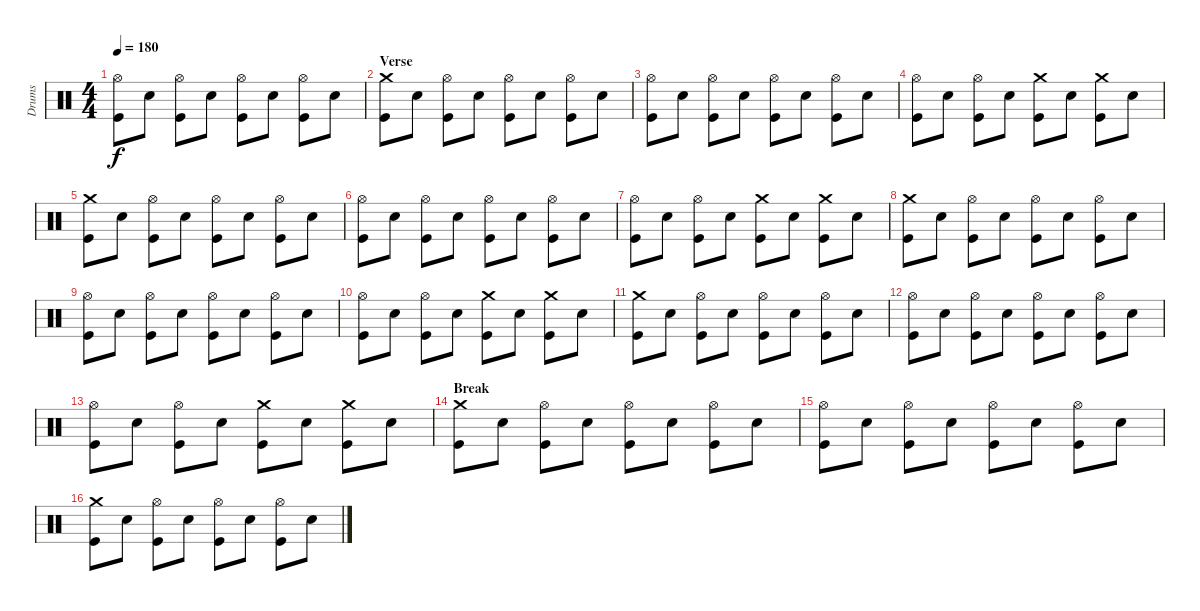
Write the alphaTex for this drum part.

\track ("Drums" "Drums") {instrument percussion}
\staff {score}
\articulation defaults
\ts (4 4)
\tempo 180
\clef neutral
\ks c
("Hi-Hat (open)" "Kick (hit)").8{dy f} "Snare (hit) 2".8 ("Hi-Hat (open)" "Kick (hit)").8 "Snare (hit) 2".8 ("Hi-Hat (open)" "Kick (hit)").8 "Snare (hit) 2".8 ("Hi-Hat (open)" "Kick (hit)").8 "Snare (hit) 2".8 |
\section ("" "Verse")
("Crash medium (hit)" "Kick (hit)").8 "Snare (hit) 2".8 ("Hi-Hat (open)" "Kick (hit)").8 "Snare (hit) 2".8 ("Hi-Hat (open)" "Kick (hit)").8 "Snare (hit) 2".8 ("Hi-Hat (open)" "Kick (hit)").8 "Snare (hit) 2".8 |
("Hi-Hat (open)" "Kick (hit)").8 "Snare (hit) 2".8 ("Hi-Hat (open)" "Kick (hit)").8 "Snare (hit) 2".8 ("Hi-Hat (open)" "Kick (hit)").8 "Snare (hit) 2".8 ("Hi-Hat (open)" "Kick (hit)").8 "Snare (hit) 2".8 |
("Hi-Hat (open)" "Kick (hit)").8 "Snare (hit) 2".8 ("Hi-Hat (open)" "Kick (hit)").8 "Snare (hit) 2".8 ("Crash medium (hit)" "Kick (hit)").8 "Snare (hit) 2".8 ("Crash medium (hit)" "Kick (hit)").8 "Snare (hit) 2".8 |
("Crash medium (hit)" "Kick (hit)").8 "Snare (hit) 2".8 ("Hi-Hat (open)" "Kick (hit)").8 "Snare (hit) 2".8 ("Hi-Hat (open)" "Kick (hit)").8 "Snare (hit) 2".8 ("Hi-Hat (open)" "Kick (hit)").8 "Snare (hit) 2".8 |
("Hi-Hat (open)" "Kick (hit)").8 "Snare (hit) 2".8 ("Hi-Hat (open)" "Kick (hit)").8 "Snare (hit) 2".8 ("Hi-Hat (open)" "Kick (hit)").8 "Snare (hit) 2".8 ("Hi-Hat (open)" "Kick (hit)").8 "Snare (hit) 2".8 |
("Hi-Hat (open)" "Kick (hit)").8 "Snare (hit) 2".8 ("Hi-Hat (open)" "Kick (hit)").8 "Snare (hit) 2".8 ("Crash medium (hit)" "Kick (hit)").8 "Snare (hit) 2".8 ("Crash medium (hit)" "Kick (hit)").8 "Snare (hit) 2".8 |
("Crash medium (hit)" "Kick (hit)").8 "Snare (hit) 2".8 ("Hi-Hat (open)" "Kick (hit)").8 "Snare (hit) 2".8 ("Hi-Hat (open)" "Kick (hit)").8 "Snare (hit) 2".8 ("Hi-Hat (open)" "Kick (hit)").8 "Snare (hit) 2".8 |
("Hi-Hat (open)" "Kick (hit)").8 "Snare (hit) 2".8 ("Hi-Hat (open)" "Kick (hit)").8 "Snare (hit) 2".8 ("Hi-Hat (open)" "Kick (hit)").8 "Snare (hit) 2".8 ("Hi-Hat (open)" "Kick (hit)").8 "Snare (hit) 2".8 |
("Hi-Hat (open)" "Kick (hit)").8 "Snare (hit) 2".8 ("Hi-Hat (open)" "Kick (hit)").8 "Snare (hit) 2".8 ("Crash medium (hit)" "Kick (hit)").8 "Snare (hit) 2".8 ("Crash medium (hit)" "Kick (hit)").8 "Snare (hit) 2".8 |
("Crash medium (hit)" "Kick (hit)").8 "Snare (hit) 2".8 ("Hi-Hat (open)" "Kick (hit)").8 "Snare (hit) 2".8 ("Hi-Hat (open)" "Kick (hit)").8 "Snare (hit) 2".8 ("Hi-Hat (open)" "Kick (hit)").8 "Snare (hit) 2".8 |
("Hi-Hat (open)" "Kick (hit)").8 "Snare (hit) 2".8 ("Hi-Hat (open)" "Kick (hit)").8 "Snare (hit) 2".8 ("Hi-Hat (open)" "Kick (hit)").8 "Snare (hit) 2".8 ("Hi-Hat (open)" "Kick (hit)").8 "Snare (hit) 2".8 |
("Hi-Hat (open)" "Kick (hit)").8 "Snare (hit) 2".8 ("Hi-Hat (open)" "Kick (hit)").8 "Snare (hit) 2".8 ("Crash medium (hit)" "Kick (hit)").8 "Snare (hit) 2".8 ("Crash medium (hit)" "Kick (hit)").8 "Snare (hit) 2".8 |
\section ("" "Break")
("Crash medium (hit)" "Kick (hit)").8 "Snare (hit) 2".8 ("Hi-Hat (open)" "Kick (hit)").8 "Snare (hit) 2".8 ("Hi-Hat (open)" "Kick (hit)").8 "Snare (hit) 2".8 ("Hi-Hat (open)" "Kick (hit)").8 "Snare (hit) 2".8 |
("Hi-Hat (open)" "Kick (hit)").8 "Snare (hit) 2".8 ("Hi-Hat (open)" "Kick (hit)").8 "Snare (hit) 2".8 ("Hi-Hat (open)" "Kick (hit)").8 "Snare (hit) 2".8 ("Hi-Hat (open)" "Kick (hit)").8 "Snare (hit) 2".8 |
("Crash medium (hit)" "Kick (hit)").8 "Snare (hit) 2".8 ("Hi-Hat (open)" "Kick (hit)").8 "Snare (hit) 2".8 ("Hi-Hat (open)" "Kick (hit)").8 "Snare (hit) 2".8 ("Hi-Hat (open)" "Kick (hit)").8 "Snare (hit) 2".8
